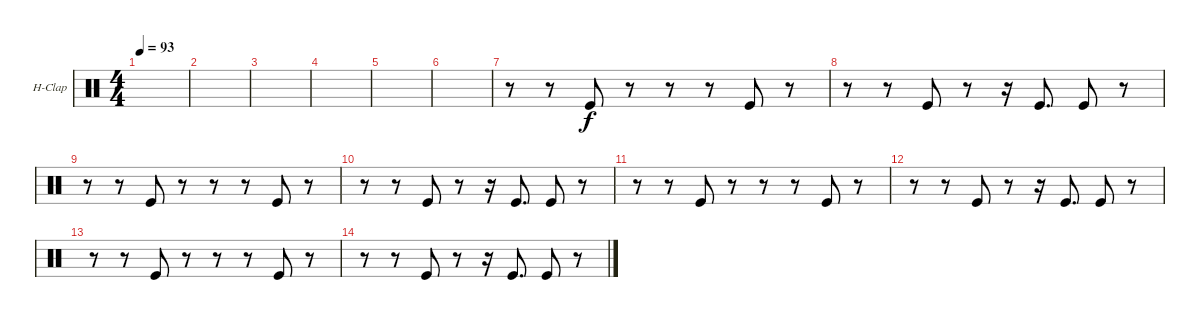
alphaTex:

\defaultSystemsLayout 4
\bracketExtendMode groupsimilarinstruments
\firstSystemTrackNameOrientation horizontal
\otherSystemsTrackNameOrientation horizontal
\track ("Hand Clap" "H-Clap") {instrument percussion}
\staff {score}
\articulation defaults
\ts (4 4)
\tempo 93
\clef neutral
\ks c
|
|
|
|
|
|
r.8 r.8 "Kick (hit)".8 r.8 r.8 r.8 "Kick (hit)".8 r.8 |
r.8 r.8 "Kick (hit)".8 r.8 r.16 "Kick (hit)".8{d} "Kick (hit)".8 r.8 |
r.8 r.8 "Kick (hit)".8 r.8 r.8 r.8 "Kick (hit)".8 r.8 |
r.8 r.8 "Kick (hit)".8 r.8 r.16 "Kick (hit)".8{d} "Kick (hit)".8 r.8 |
r.8 r.8 "Kick (hit)".8 r.8 r.8 r.8 "Kick (hit)".8 r.8 |
r.8 r.8 "Kick (hit)".8 r.8 r.16 "Kick (hit)".8{d} "Kick (hit)".8 r.8 |
r.8 r.8 "Kick (hit)".8 r.8 r.8 r.8 "Kick (hit)".8 r.8 |
r.8 r.8 "Kick (hit)".8 r.8 r.16 "Kick (hit)".8{d} "Kick (hit)".8 r.8
